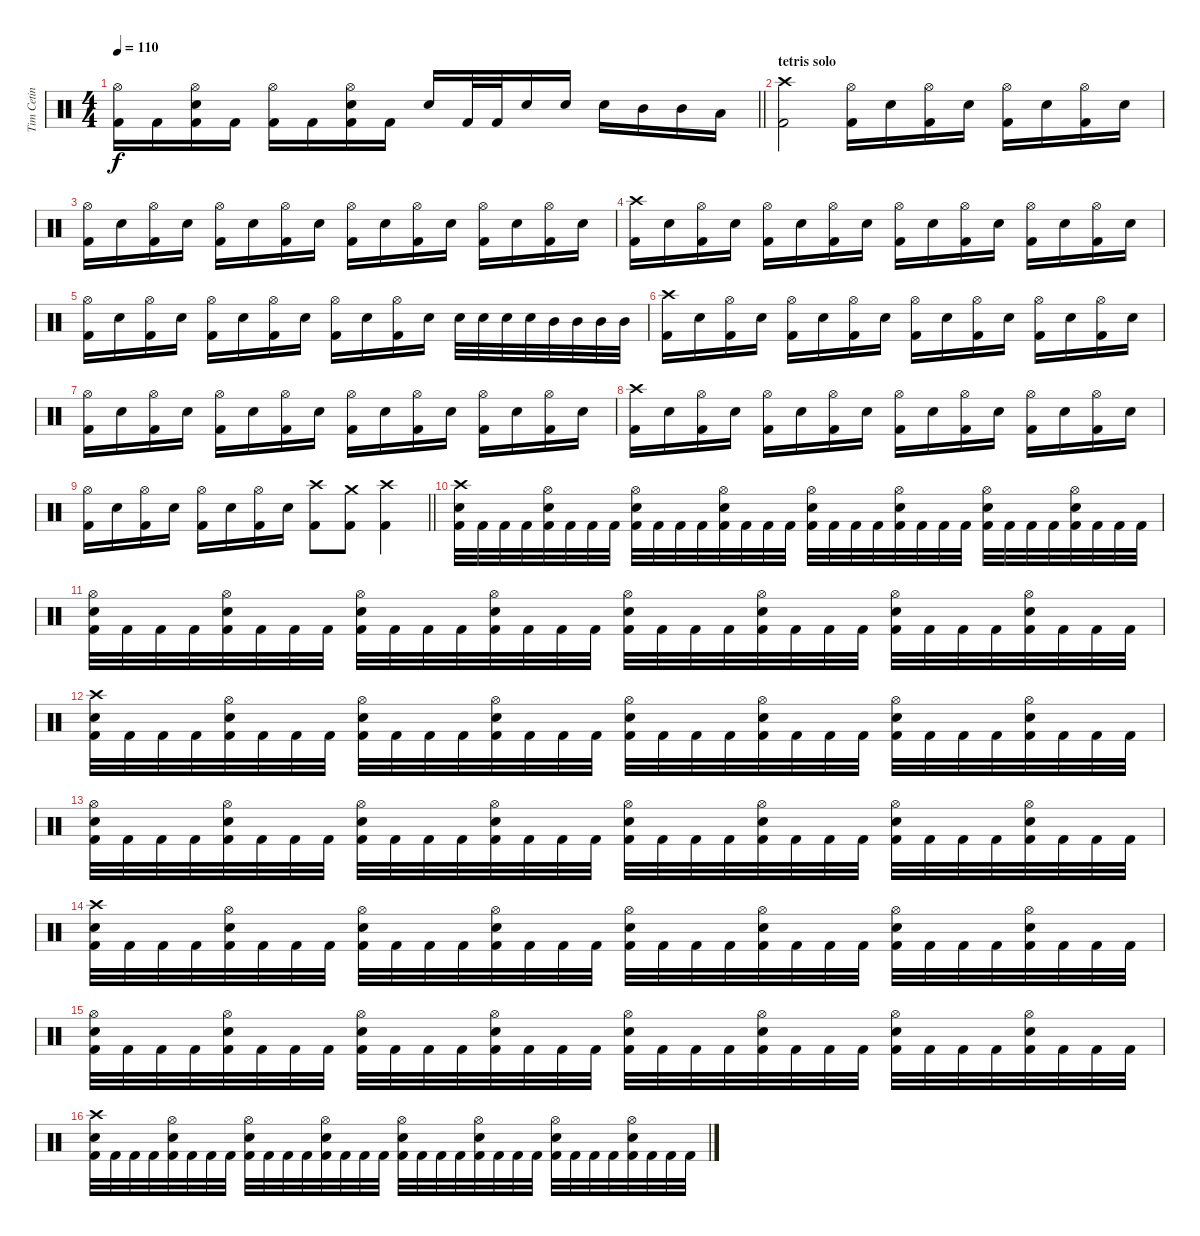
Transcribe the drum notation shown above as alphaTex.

\track ("Tim Cetin" "Tim Cetin") {instrument percussion}
\staff {score}
\articulation defaults
\ts (4 4)
\tempo 110
\clef neutral
\barLineRight lightlight
\ks c
("Hi-Hat (open)" "Kick (hit) 2").16{dy f} "Kick (hit) 2".16 ("Hi-Hat (open)" "Snare (hit) 2" "Kick (hit) 2").16 "Kick (hit) 2".16 ("Hi-Hat (open)" "Kick (hit) 2").16 "Kick (hit) 2".16 ("Hi-Hat (open)" "Snare (hit) 2" "Kick (hit) 2").16 "Kick (hit) 2".16 "Snare (hit) 2".16 "Kick (hit) 2".32 "Kick (hit) 2".32 "Snare (hit) 2".16 "Snare (hit) 2".16 "Snare (hit) 2".16 "Mid Tom (hit)".16 "Mid Tom (hit)".16 "Low Tom (hit)".16 |
\section ("" "tetris solo")
("Crash high (hit)" "Kick (hit) 2").2 ("Hi-Hat (open)" "Kick (hit) 2").16 "Snare (hit) 2".16 ("Hi-Hat (open)" "Kick (hit) 2").16 "Snare (hit) 2".16 ("Hi-Hat (open)" "Kick (hit) 2").16 "Snare (hit) 2".16 ("Hi-Hat (open)" "Kick (hit) 2").16 "Snare (hit) 2".16 |
("Hi-Hat (open)" "Kick (hit) 2").16 "Snare (hit) 2".16 ("Hi-Hat (open)" "Kick (hit) 2").16 "Snare (hit) 2".16 ("Hi-Hat (open)" "Kick (hit) 2").16 "Snare (hit) 2".16 ("Hi-Hat (open)" "Kick (hit) 2").16 "Snare (hit) 2".16 ("Hi-Hat (open)" "Kick (hit) 2").16 "Snare (hit) 2".16 ("Hi-Hat (open)" "Kick (hit) 2").16 "Snare (hit) 2".16 ("Hi-Hat (open)" "Kick (hit) 2").16 "Snare (hit) 2".16 ("Hi-Hat (open)" "Kick (hit) 2").16 "Snare (hit) 2".16 |
("Crash high (hit)" "Kick (hit) 2").16 "Snare (hit) 2".16 ("Hi-Hat (open)" "Kick (hit) 2").16 "Snare (hit) 2".16 ("Hi-Hat (open)" "Kick (hit) 2").16 "Snare (hit) 2".16 ("Hi-Hat (open)" "Kick (hit) 2").16 "Snare (hit) 2".16 ("Hi-Hat (open)" "Kick (hit) 2").16 "Snare (hit) 2".16 ("Hi-Hat (open)" "Kick (hit) 2").16 "Snare (hit) 2".16 ("Hi-Hat (open)" "Kick (hit) 2").16 "Snare (hit) 2".16 ("Hi-Hat (open)" "Kick (hit) 2").16 "Snare (hit) 2".16 |
("Hi-Hat (open)" "Kick (hit) 2").16 "Snare (hit) 2".16 ("Hi-Hat (open)" "Kick (hit) 2").16 "Snare (hit) 2".16 ("Hi-Hat (open)" "Kick (hit) 2").16 "Snare (hit) 2".16 ("Hi-Hat (open)" "Kick (hit) 2").16 "Snare (hit) 2".16 ("Hi-Hat (open)" "Kick (hit) 2").16 "Snare (hit) 2".16 ("Hi-Hat (open)" "Kick (hit) 2").16 "Snare (hit) 2".16 "Snare (hit) 2".32 "Snare (hit) 2".32 "Snare (hit) 2".32 "Snare (hit) 2".32 "Mid Tom (hit)".32 "Mid Tom (hit)".32 "Mid Tom (hit)".32 "Mid Tom (hit)".32 |
("Crash high (hit)" "Kick (hit) 2").16 "Snare (hit) 2".16 ("Hi-Hat (open)" "Kick (hit) 2").16 "Snare (hit) 2".16 ("Hi-Hat (open)" "Kick (hit) 2").16 "Snare (hit) 2".16 ("Hi-Hat (open)" "Kick (hit) 2").16 "Snare (hit) 2".16 ("Hi-Hat (open)" "Kick (hit) 2").16 "Snare (hit) 2".16 ("Hi-Hat (open)" "Kick (hit) 2").16 "Snare (hit) 2".16 ("Hi-Hat (open)" "Kick (hit) 2").16 "Snare (hit) 2".16 ("Hi-Hat (open)" "Kick (hit) 2").16 "Snare (hit) 2".16 |
("Hi-Hat (open)" "Kick (hit) 2").16 "Snare (hit) 2".16 ("Hi-Hat (open)" "Kick (hit) 2").16 "Snare (hit) 2".16 ("Hi-Hat (open)" "Kick (hit) 2").16 "Snare (hit) 2".16 ("Hi-Hat (open)" "Kick (hit) 2").16 "Snare (hit) 2".16 ("Hi-Hat (open)" "Kick (hit) 2").16 "Snare (hit) 2".16 ("Hi-Hat (open)" "Kick (hit) 2").16 "Snare (hit) 2".16 ("Hi-Hat (open)" "Kick (hit) 2").16 "Snare (hit) 2".16 ("Hi-Hat (open)" "Kick (hit) 2").16 "Snare (hit) 2".16 |
("Crash high (hit)" "Kick (hit) 2").16 "Snare (hit) 2".16 ("Hi-Hat (open)" "Kick (hit) 2").16 "Snare (hit) 2".16 ("Hi-Hat (open)" "Kick (hit) 2").16 "Snare (hit) 2".16 ("Hi-Hat (open)" "Kick (hit) 2").16 "Snare (hit) 2".16 ("Hi-Hat (open)" "Kick (hit) 2").16 "Snare (hit) 2".16 ("Hi-Hat (open)" "Kick (hit) 2").16 "Snare (hit) 2".16 ("Hi-Hat (open)" "Kick (hit) 2").16 "Snare (hit) 2".16 ("Hi-Hat (open)" "Kick (hit) 2").16 "Snare (hit) 2".16 |
\barLineRight lightlight
("Hi-Hat (open)" "Kick (hit) 2").16 "Snare (hit) 2".16 ("Hi-Hat (open)" "Kick (hit) 2").16 "Snare (hit) 2".16 ("Hi-Hat (open)" "Kick (hit) 2").16 "Snare (hit) 2".16 ("Hi-Hat (open)" "Kick (hit) 2").16 "Snare (hit) 2".16 ("Crash high (hit)" "Kick (hit) 2").8 ("Crash medium (hit)" "Kick (hit) 2").8 ("Crash high (hit)" "Kick (hit) 2").4 |
\section ("" "")
("Crash high (hit)" "Snare (hit) 2" "Kick (hit) 2").32 "Kick (hit) 2".32 "Kick (hit) 2".32 "Kick (hit) 2".32 ("Hi-Hat (open)" "Snare (hit) 2" "Kick (hit) 2").32 "Kick (hit) 2".32 "Kick (hit) 2".32 "Kick (hit) 2".32 ("Hi-Hat (open)" "Snare (hit) 2" "Kick (hit) 2").32 "Kick (hit) 2".32 "Kick (hit) 2".32 "Kick (hit) 2".32 ("Hi-Hat (open)" "Snare (hit) 2" "Kick (hit) 2").32 "Kick (hit) 2".32 "Kick (hit) 2".32 "Kick (hit) 2".32 ("Hi-Hat (open)" "Snare (hit) 2" "Kick (hit) 2").32 "Kick (hit) 2".32 "Kick (hit) 2".32 "Kick (hit) 2".32 ("Hi-Hat (open)" "Snare (hit) 2" "Kick (hit) 2").32 "Kick (hit) 2".32 "Kick (hit) 2".32 "Kick (hit) 2".32 ("Hi-Hat (open)" "Snare (hit) 2" "Kick (hit) 2").32 "Kick (hit) 2".32 "Kick (hit) 2".32 "Kick (hit) 2".32 ("Hi-Hat (open)" "Snare (hit) 2" "Kick (hit) 2").32 "Kick (hit) 2".32 "Kick (hit) 2".32 "Kick (hit) 2".32 |
("Hi-Hat (open)" "Snare (hit) 2" "Kick (hit) 2").32 "Kick (hit) 2".32 "Kick (hit) 2".32 "Kick (hit) 2".32 ("Hi-Hat (open)" "Snare (hit) 2" "Kick (hit) 2").32 "Kick (hit) 2".32 "Kick (hit) 2".32 "Kick (hit) 2".32 ("Hi-Hat (open)" "Snare (hit) 2" "Kick (hit) 2").32 "Kick (hit) 2".32 "Kick (hit) 2".32 "Kick (hit) 2".32 ("Hi-Hat (open)" "Snare (hit) 2" "Kick (hit) 2").32 "Kick (hit) 2".32 "Kick (hit) 2".32 "Kick (hit) 2".32 ("Hi-Hat (open)" "Snare (hit) 2" "Kick (hit) 2").32 "Kick (hit) 2".32 "Kick (hit) 2".32 "Kick (hit) 2".32 ("Hi-Hat (open)" "Snare (hit) 2" "Kick (hit) 2").32 "Kick (hit) 2".32 "Kick (hit) 2".32 "Kick (hit) 2".32 ("Hi-Hat (open)" "Snare (hit) 2" "Kick (hit) 2").32 "Kick (hit) 2".32 "Kick (hit) 2".32 "Kick (hit) 2".32 ("Hi-Hat (open)" "Snare (hit) 2" "Kick (hit) 2").32 "Kick (hit) 2".32 "Kick (hit) 2".32 "Kick (hit) 2".32 |
("Crash high (hit)" "Snare (hit) 2" "Kick (hit) 2").32 "Kick (hit) 2".32 "Kick (hit) 2".32 "Kick (hit) 2".32 ("Hi-Hat (open)" "Snare (hit) 2" "Kick (hit) 2").32 "Kick (hit) 2".32 "Kick (hit) 2".32 "Kick (hit) 2".32 ("Hi-Hat (open)" "Snare (hit) 2" "Kick (hit) 2").32 "Kick (hit) 2".32 "Kick (hit) 2".32 "Kick (hit) 2".32 ("Hi-Hat (open)" "Snare (hit) 2" "Kick (hit) 2").32 "Kick (hit) 2".32 "Kick (hit) 2".32 "Kick (hit) 2".32 ("Hi-Hat (open)" "Snare (hit) 2" "Kick (hit) 2").32 "Kick (hit) 2".32 "Kick (hit) 2".32 "Kick (hit) 2".32 ("Hi-Hat (open)" "Snare (hit) 2" "Kick (hit) 2").32 "Kick (hit) 2".32 "Kick (hit) 2".32 "Kick (hit) 2".32 ("Hi-Hat (open)" "Snare (hit) 2" "Kick (hit) 2").32 "Kick (hit) 2".32 "Kick (hit) 2".32 "Kick (hit) 2".32 ("Hi-Hat (open)" "Snare (hit) 2" "Kick (hit) 2").32 "Kick (hit) 2".32 "Kick (hit) 2".32 "Kick (hit) 2".32 |
("Hi-Hat (open)" "Snare (hit) 2" "Kick (hit) 2").32 "Kick (hit) 2".32 "Kick (hit) 2".32 "Kick (hit) 2".32 ("Hi-Hat (open)" "Snare (hit) 2" "Kick (hit) 2").32 "Kick (hit) 2".32 "Kick (hit) 2".32 "Kick (hit) 2".32 ("Hi-Hat (open)" "Snare (hit) 2" "Kick (hit) 2").32 "Kick (hit) 2".32 "Kick (hit) 2".32 "Kick (hit) 2".32 ("Hi-Hat (open)" "Snare (hit) 2" "Kick (hit) 2").32 "Kick (hit) 2".32 "Kick (hit) 2".32 "Kick (hit) 2".32 ("Hi-Hat (open)" "Snare (hit) 2" "Kick (hit) 2").32 "Kick (hit) 2".32 "Kick (hit) 2".32 "Kick (hit) 2".32 ("Hi-Hat (open)" "Snare (hit) 2" "Kick (hit) 2").32 "Kick (hit) 2".32 "Kick (hit) 2".32 "Kick (hit) 2".32 ("Hi-Hat (open)" "Snare (hit) 2" "Kick (hit) 2").32 "Kick (hit) 2".32 "Kick (hit) 2".32 "Kick (hit) 2".32 ("Hi-Hat (open)" "Snare (hit) 2" "Kick (hit) 2").32 "Kick (hit) 2".32 "Kick (hit) 2".32 "Kick (hit) 2".32 |
("Crash high (hit)" "Snare (hit) 2" "Kick (hit) 2").32 "Kick (hit) 2".32 "Kick (hit) 2".32 "Kick (hit) 2".32 ("Hi-Hat (open)" "Snare (hit) 2" "Kick (hit) 2").32 "Kick (hit) 2".32 "Kick (hit) 2".32 "Kick (hit) 2".32 ("Hi-Hat (open)" "Snare (hit) 2" "Kick (hit) 2").32 "Kick (hit) 2".32 "Kick (hit) 2".32 "Kick (hit) 2".32 ("Hi-Hat (open)" "Snare (hit) 2" "Kick (hit) 2").32 "Kick (hit) 2".32 "Kick (hit) 2".32 "Kick (hit) 2".32 ("Hi-Hat (open)" "Snare (hit) 2" "Kick (hit) 2").32 "Kick (hit) 2".32 "Kick (hit) 2".32 "Kick (hit) 2".32 ("Hi-Hat (open)" "Snare (hit) 2" "Kick (hit) 2").32 "Kick (hit) 2".32 "Kick (hit) 2".32 "Kick (hit) 2".32 ("Hi-Hat (open)" "Snare (hit) 2" "Kick (hit) 2").32 "Kick (hit) 2".32 "Kick (hit) 2".32 "Kick (hit) 2".32 ("Hi-Hat (open)" "Snare (hit) 2" "Kick (hit) 2").32 "Kick (hit) 2".32 "Kick (hit) 2".32 "Kick (hit) 2".32 |
("Hi-Hat (open)" "Snare (hit) 2" "Kick (hit) 2").32 "Kick (hit) 2".32 "Kick (hit) 2".32 "Kick (hit) 2".32 ("Hi-Hat (open)" "Snare (hit) 2" "Kick (hit) 2").32 "Kick (hit) 2".32 "Kick (hit) 2".32 "Kick (hit) 2".32 ("Hi-Hat (open)" "Snare (hit) 2" "Kick (hit) 2").32 "Kick (hit) 2".32 "Kick (hit) 2".32 "Kick (hit) 2".32 ("Hi-Hat (open)" "Snare (hit) 2" "Kick (hit) 2").32 "Kick (hit) 2".32 "Kick (hit) 2".32 "Kick (hit) 2".32 ("Hi-Hat (open)" "Snare (hit) 2" "Kick (hit) 2").32 "Kick (hit) 2".32 "Kick (hit) 2".32 "Kick (hit) 2".32 ("Hi-Hat (open)" "Snare (hit) 2" "Kick (hit) 2").32 "Kick (hit) 2".32 "Kick (hit) 2".32 "Kick (hit) 2".32 ("Hi-Hat (open)" "Snare (hit) 2" "Kick (hit) 2").32 "Kick (hit) 2".32 "Kick (hit) 2".32 "Kick (hit) 2".32 ("Hi-Hat (open)" "Snare (hit) 2" "Kick (hit) 2").32 "Kick (hit) 2".32 "Kick (hit) 2".32 "Kick (hit) 2".32 |
("Crash high (hit)" "Snare (hit) 2" "Kick (hit) 2").32 "Kick (hit) 2".32 "Kick (hit) 2".32 "Kick (hit) 2".32 ("Hi-Hat (open)" "Snare (hit) 2" "Kick (hit) 2").32 "Kick (hit) 2".32 "Kick (hit) 2".32 "Kick (hit) 2".32 ("Hi-Hat (open)" "Snare (hit) 2" "Kick (hit) 2").32 "Kick (hit) 2".32 "Kick (hit) 2".32 "Kick (hit) 2".32 ("Hi-Hat (open)" "Snare (hit) 2" "Kick (hit) 2").32 "Kick (hit) 2".32 "Kick (hit) 2".32 "Kick (hit) 2".32 ("Hi-Hat (open)" "Snare (hit) 2" "Kick (hit) 2").32 "Kick (hit) 2".32 "Kick (hit) 2".32 "Kick (hit) 2".32 ("Hi-Hat (open)" "Snare (hit) 2" "Kick (hit) 2").32 "Kick (hit) 2".32 "Kick (hit) 2".32 "Kick (hit) 2".32 ("Hi-Hat (open)" "Snare (hit) 2" "Kick (hit) 2").32 "Kick (hit) 2".32 "Kick (hit) 2".32 "Kick (hit) 2".32 ("Hi-Hat (open)" "Snare (hit) 2" "Kick (hit) 2").32 "Kick (hit) 2".32 "Kick (hit) 2".32 "Kick (hit) 2".32
